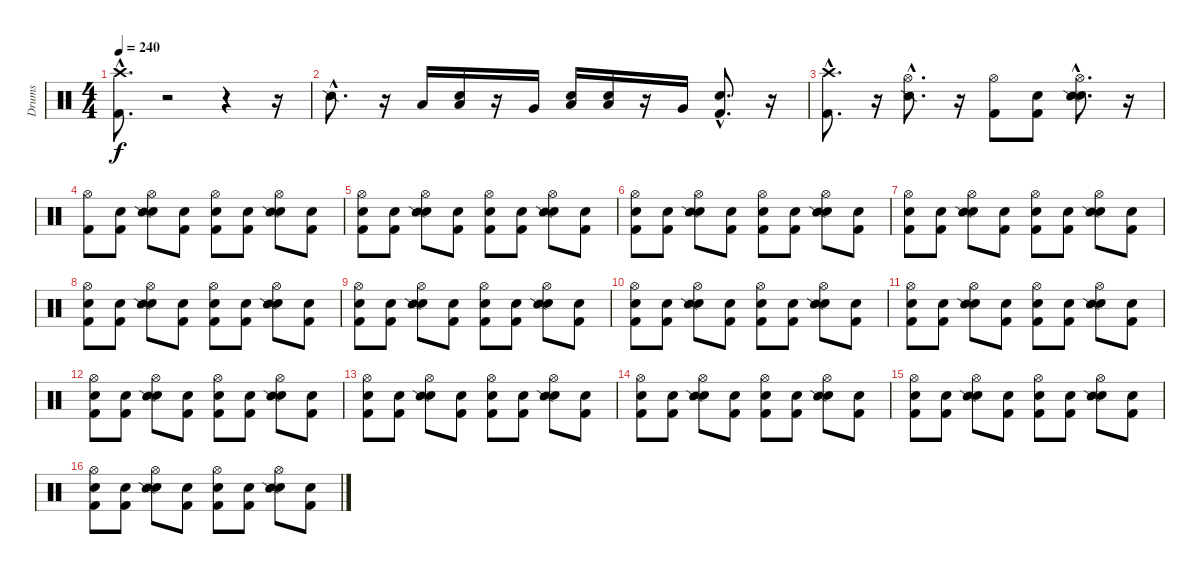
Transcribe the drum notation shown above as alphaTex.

\track ("Drums" "Drums") {instrument percussion}
\staff {score}
\articulation defaults
\ts (4 4)
\tempo 240
\clef neutral
\ks c
("Kick (hit) 2"{hac} "Crash high (hit)"{hac}).8{d dy f} r.2 r.4 r.16 |
"Snare (side stick) 2"{hac}.8{d} r.16 "Low Tom (hit)".16 ("Snare (hit)" "Low Tom (hit)").16 r.16 "Very Low Tom (hit)".16 ("Snare (hit)" "Low Tom (hit)").16 ("Snare (hit)" "Low Tom (hit)").16 r.16 "Very Low Tom (hit)".16 ("Snare (hit)"{hac} "Kick (hit) 2"{hac}).8{d} r.16 |
("Kick (hit) 2"{hac} "Crash high (hit)"{hac}).8{d} r.16 ("Hi-Hat (open)"{hac} "Snare (side stick) 2"{hac}).8{d} r.16 ("Kick (hit) 2" "Hi-Hat (open)").8 ("Snare (hit)" "Kick (hit) 2").8 ("Snare (hit)"{hac} "Hi-Hat (open)"{hac} "Snare (side stick) 2"{hac}).8{d} r.16 |
("Kick (hit) 2" "Hi-Hat (open)").8 ("Snare (hit)" "Kick (hit) 2").8 ("Snare (hit)" "Hi-Hat (open)" "Snare (side stick) 2").8 ("Snare (hit)" "Kick (hit) 2").8 ("Snare (hit)" "Kick (hit) 2" "Hi-Hat (open)").8 ("Snare (hit)" "Kick (hit) 2").8 ("Snare (hit)" "Hi-Hat (open)" "Snare (side stick) 2").8 ("Snare (hit)" "Kick (hit) 2").8 |
("Snare (hit)" "Kick (hit) 2" "Hi-Hat (open)").8 ("Snare (hit)" "Kick (hit) 2").8 ("Snare (hit)" "Hi-Hat (open)" "Snare (side stick) 2").8 ("Snare (hit)" "Kick (hit) 2").8 ("Snare (hit)" "Kick (hit) 2" "Hi-Hat (open)").8 ("Snare (hit)" "Kick (hit) 2").8 ("Snare (hit)" "Hi-Hat (open)" "Snare (side stick) 2").8 ("Snare (hit)" "Kick (hit) 2").8 |
("Snare (hit)" "Kick (hit) 2" "Hi-Hat (open)").8 ("Snare (hit)" "Kick (hit) 2").8 ("Snare (hit)" "Hi-Hat (open)" "Snare (side stick) 2").8 ("Snare (hit)" "Kick (hit) 2").8 ("Snare (hit)" "Kick (hit) 2" "Hi-Hat (open)").8 ("Snare (hit)" "Kick (hit) 2").8 ("Snare (hit)" "Hi-Hat (open)" "Snare (side stick) 2").8 ("Snare (hit)" "Kick (hit) 2").8 |
("Snare (hit)" "Kick (hit) 2" "Hi-Hat (open)").8 ("Snare (hit)" "Kick (hit) 2").8 ("Snare (hit)" "Hi-Hat (open)" "Snare (side stick) 2").8 ("Snare (hit)" "Kick (hit) 2").8 ("Snare (hit)" "Kick (hit) 2" "Hi-Hat (open)").8 ("Snare (hit)" "Kick (hit) 2").8 ("Snare (hit)" "Hi-Hat (open)" "Snare (side stick) 2").8 ("Snare (hit)" "Kick (hit) 2").8 |
("Snare (hit)" "Kick (hit) 2" "Hi-Hat (open)").8 ("Snare (hit)" "Kick (hit) 2").8 ("Snare (hit)" "Hi-Hat (open)" "Snare (side stick) 2").8 ("Snare (hit)" "Kick (hit) 2").8 ("Snare (hit)" "Kick (hit) 2" "Hi-Hat (open)").8 ("Snare (hit)" "Kick (hit) 2").8 ("Snare (hit)" "Hi-Hat (open)" "Snare (side stick) 2").8 ("Snare (hit)" "Kick (hit) 2").8 |
("Snare (hit)" "Kick (hit) 2" "Hi-Hat (open)").8 ("Snare (hit)" "Kick (hit) 2").8 ("Snare (hit)" "Hi-Hat (open)" "Snare (side stick) 2").8 ("Snare (hit)" "Kick (hit) 2").8 ("Snare (hit)" "Kick (hit) 2" "Hi-Hat (open)").8 ("Snare (hit)" "Kick (hit) 2").8 ("Snare (hit)" "Hi-Hat (open)" "Snare (side stick) 2").8 ("Snare (hit)" "Kick (hit) 2").8 |
("Snare (hit)" "Kick (hit) 2" "Hi-Hat (open)").8 ("Snare (hit)" "Kick (hit) 2").8 ("Snare (hit)" "Hi-Hat (open)" "Snare (side stick) 2").8 ("Snare (hit)" "Kick (hit) 2").8 ("Snare (hit)" "Kick (hit) 2" "Hi-Hat (open)").8 ("Snare (hit)" "Kick (hit) 2").8 ("Snare (hit)" "Hi-Hat (open)" "Snare (side stick) 2").8 ("Snare (hit)" "Kick (hit) 2").8 |
("Snare (hit)" "Kick (hit) 2" "Hi-Hat (open)").8 ("Snare (hit)" "Kick (hit) 2").8 ("Snare (hit)" "Hi-Hat (open)" "Snare (side stick) 2").8 ("Snare (hit)" "Kick (hit) 2").8 ("Snare (hit)" "Kick (hit) 2" "Hi-Hat (open)").8 ("Snare (hit)" "Kick (hit) 2").8 ("Snare (hit)" "Hi-Hat (open)" "Snare (side stick) 2").8 ("Snare (hit)" "Kick (hit) 2").8 |
("Snare (hit)" "Kick (hit) 2" "Hi-Hat (open)").8 ("Snare (hit)" "Kick (hit) 2").8 ("Snare (hit)" "Hi-Hat (open)" "Snare (side stick) 2").8 ("Snare (hit)" "Kick (hit) 2").8 ("Snare (hit)" "Kick (hit) 2" "Hi-Hat (open)").8 ("Snare (hit)" "Kick (hit) 2").8 ("Snare (hit)" "Hi-Hat (open)" "Snare (side stick) 2").8 ("Snare (hit)" "Kick (hit) 2").8 |
("Snare (hit)" "Kick (hit) 2" "Hi-Hat (open)").8 ("Snare (hit)" "Kick (hit) 2").8 ("Snare (hit)" "Hi-Hat (open)" "Snare (side stick) 2").8 ("Snare (hit)" "Kick (hit) 2").8 ("Snare (hit)" "Kick (hit) 2" "Hi-Hat (open)").8 ("Snare (hit)" "Kick (hit) 2").8 ("Snare (hit)" "Hi-Hat (open)" "Snare (side stick) 2").8 ("Snare (hit)" "Kick (hit) 2").8 |
("Snare (hit)" "Kick (hit) 2" "Hi-Hat (open)").8 ("Snare (hit)" "Kick (hit) 2").8 ("Snare (hit)" "Hi-Hat (open)" "Snare (side stick) 2").8 ("Snare (hit)" "Kick (hit) 2").8 ("Snare (hit)" "Kick (hit) 2" "Hi-Hat (open)").8 ("Snare (hit)" "Kick (hit) 2").8 ("Snare (hit)" "Hi-Hat (open)" "Snare (side stick) 2").8 ("Snare (hit)" "Kick (hit) 2").8 |
("Snare (hit)" "Kick (hit) 2" "Hi-Hat (open)").8 ("Snare (hit)" "Kick (hit) 2").8 ("Snare (hit)" "Hi-Hat (open)" "Snare (side stick) 2").8 ("Snare (hit)" "Kick (hit) 2").8 ("Snare (hit)" "Kick (hit) 2" "Hi-Hat (open)").8 ("Snare (hit)" "Kick (hit) 2").8 ("Snare (hit)" "Hi-Hat (open)" "Snare (side stick) 2").8 ("Snare (hit)" "Kick (hit) 2").8 |
("Snare (hit)" "Kick (hit) 2" "Hi-Hat (open)").8 ("Snare (hit)" "Kick (hit) 2").8 ("Snare (hit)" "Hi-Hat (open)" "Snare (side stick) 2").8 ("Snare (hit)" "Kick (hit) 2").8 ("Snare (hit)" "Kick (hit) 2" "Hi-Hat (open)").8 ("Snare (hit)" "Kick (hit) 2").8 ("Snare (hit)" "Hi-Hat (open)" "Snare (side stick) 2").8 ("Snare (hit)" "Kick (hit) 2").8
